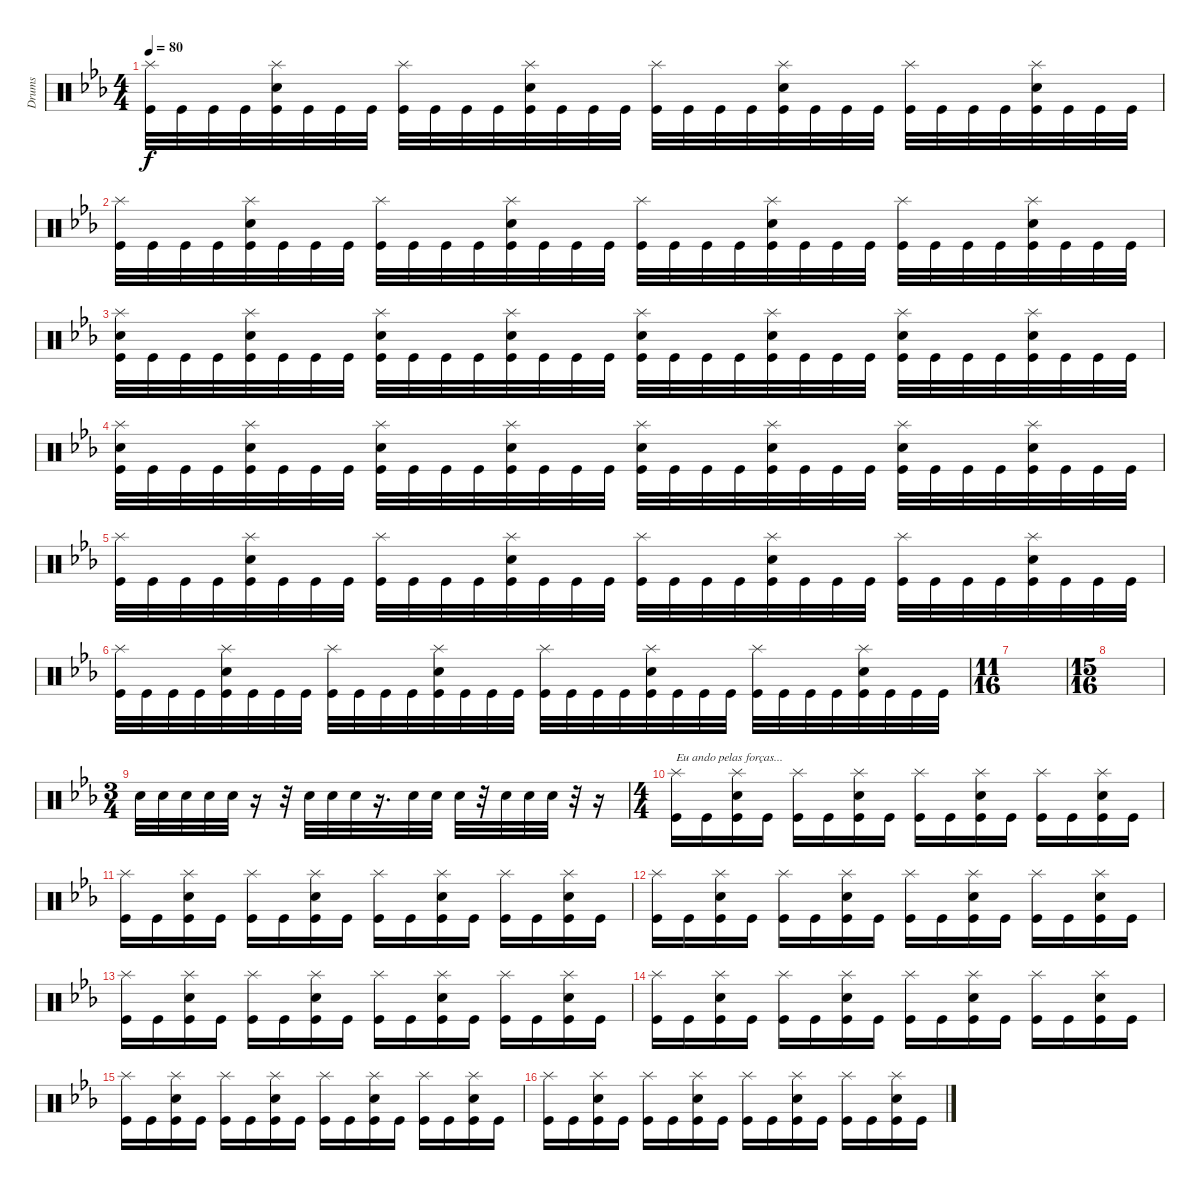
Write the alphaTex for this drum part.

\track ("Drums" "Drums") {instrument percussion}
\staff {score}
\articulation defaults
\ts (4 4)
\tempo 80
\clef neutral
\ks eb
("Splash (hit)" "Kick (hit)").32{dy f volume 13} "Kick (hit)".32 "Kick (hit)".32 "Kick (hit)".32 ("Splash (hit)" "Electric Snare (hit)" "Kick (hit)").32 "Kick (hit)".32 "Kick (hit)".32 "Kick (hit)".32 ("Splash (hit)" "Kick (hit)").32 "Kick (hit)".32 "Kick (hit)".32 "Kick (hit)".32 ("Splash (hit)" "Electric Snare (hit)" "Kick (hit)").32 "Kick (hit)".32 "Kick (hit)".32 "Kick (hit)".32 ("Splash (hit)" "Kick (hit)").32 "Kick (hit)".32 "Kick (hit)".32 "Kick (hit)".32 ("Splash (hit)" "Electric Snare (hit)" "Kick (hit)").32 "Kick (hit)".32 "Kick (hit)".32 "Kick (hit)".32 ("Splash (hit)" "Kick (hit)").32 "Kick (hit)".32 "Kick (hit)".32 "Kick (hit)".32 ("Splash (hit)" "Electric Snare (hit)" "Kick (hit)").32 "Kick (hit)".32 "Kick (hit)".32 "Kick (hit)".32 |
("Splash (hit)" "Kick (hit)").32 "Kick (hit)".32 "Kick (hit)".32 "Kick (hit)".32 ("Splash (hit)" "Electric Snare (hit)" "Kick (hit)").32 "Kick (hit)".32 "Kick (hit)".32 "Kick (hit)".32 ("Splash (hit)" "Kick (hit)").32 "Kick (hit)".32 "Kick (hit)".32 "Kick (hit)".32 ("Splash (hit)" "Electric Snare (hit)" "Kick (hit)").32 "Kick (hit)".32 "Kick (hit)".32 "Kick (hit)".32 ("Splash (hit)" "Kick (hit)").32 "Kick (hit)".32 "Kick (hit)".32 "Kick (hit)".32 ("Splash (hit)" "Electric Snare (hit)" "Kick (hit)").32 "Kick (hit)".32 "Kick (hit)".32 "Kick (hit)".32 ("Splash (hit)" "Kick (hit)").32 "Kick (hit)".32 "Kick (hit)".32 "Kick (hit)".32 ("Splash (hit)" "Electric Snare (hit)" "Kick (hit)").32 "Kick (hit)".32 "Kick (hit)".32 "Kick (hit)".32 |
("Splash (hit)" "Electric Snare (hit)" "Kick (hit)").32 "Kick (hit)".32 "Kick (hit)".32 "Kick (hit)".32 ("Splash (hit)" "Electric Snare (hit)" "Kick (hit)").32 "Kick (hit)".32 "Kick (hit)".32 "Kick (hit)".32 ("Splash (hit)" "Electric Snare (hit)" "Kick (hit)").32 "Kick (hit)".32 "Kick (hit)".32 "Kick (hit)".32 ("Splash (hit)" "Electric Snare (hit)" "Kick (hit)").32 "Kick (hit)".32 "Kick (hit)".32 "Kick (hit)".32 ("Splash (hit)" "Electric Snare (hit)" "Kick (hit)").32 "Kick (hit)".32 "Kick (hit)".32 "Kick (hit)".32 ("Splash (hit)" "Electric Snare (hit)" "Kick (hit)").32 "Kick (hit)".32 "Kick (hit)".32 "Kick (hit)".32 ("Splash (hit)" "Electric Snare (hit)" "Kick (hit)").32 "Kick (hit)".32 "Kick (hit)".32 "Kick (hit)".32 ("Splash (hit)" "Electric Snare (hit)" "Kick (hit)").32 "Kick (hit)".32 "Kick (hit)".32 "Kick (hit)".32 |
("Splash (hit)" "Electric Snare (hit)" "Kick (hit)").32 "Kick (hit)".32 "Kick (hit)".32 "Kick (hit)".32 ("Splash (hit)" "Electric Snare (hit)" "Kick (hit)").32 "Kick (hit)".32 "Kick (hit)".32 "Kick (hit)".32 ("Splash (hit)" "Electric Snare (hit)" "Kick (hit)").32 "Kick (hit)".32 "Kick (hit)".32 "Kick (hit)".32 ("Splash (hit)" "Electric Snare (hit)" "Kick (hit)").32 "Kick (hit)".32 "Kick (hit)".32 "Kick (hit)".32 ("Splash (hit)" "Electric Snare (hit)" "Kick (hit)").32 "Kick (hit)".32 "Kick (hit)".32 "Kick (hit)".32 ("Splash (hit)" "Electric Snare (hit)" "Kick (hit)").32 "Kick (hit)".32 "Kick (hit)".32 "Kick (hit)".32 ("Splash (hit)" "Electric Snare (hit)" "Kick (hit)").32 "Kick (hit)".32 "Kick (hit)".32 "Kick (hit)".32 ("Splash (hit)" "Electric Snare (hit)" "Kick (hit)").32 "Kick (hit)".32 "Kick (hit)".32 "Kick (hit)".32 |
("Splash (hit)" "Kick (hit)").32 "Kick (hit)".32 "Kick (hit)".32 "Kick (hit)".32 ("Splash (hit)" "Electric Snare (hit)" "Kick (hit)").32 "Kick (hit)".32 "Kick (hit)".32 "Kick (hit)".32 ("Splash (hit)" "Kick (hit)").32 "Kick (hit)".32 "Kick (hit)".32 "Kick (hit)".32 ("Splash (hit)" "Electric Snare (hit)" "Kick (hit)").32 "Kick (hit)".32 "Kick (hit)".32 "Kick (hit)".32 ("Splash (hit)" "Kick (hit)").32 "Kick (hit)".32 "Kick (hit)".32 "Kick (hit)".32 ("Splash (hit)" "Electric Snare (hit)" "Kick (hit)").32 "Kick (hit)".32 "Kick (hit)".32 "Kick (hit)".32 ("Splash (hit)" "Kick (hit)").32 "Kick (hit)".32 "Kick (hit)".32 "Kick (hit)".32 ("Splash (hit)" "Electric Snare (hit)" "Kick (hit)").32 "Kick (hit)".32 "Kick (hit)".32 "Kick (hit)".32 |
("Splash (hit)" "Kick (hit)").32 "Kick (hit)".32 "Kick (hit)".32 "Kick (hit)".32 ("Splash (hit)" "Electric Snare (hit)" "Kick (hit)").32 "Kick (hit)".32 "Kick (hit)".32 "Kick (hit)".32 ("Splash (hit)" "Kick (hit)").32 "Kick (hit)".32 "Kick (hit)".32 "Kick (hit)".32 ("Splash (hit)" "Electric Snare (hit)" "Kick (hit)").32 "Kick (hit)".32 "Kick (hit)".32 "Kick (hit)".32 ("Splash (hit)" "Kick (hit)").32 "Kick (hit)".32 "Kick (hit)".32 "Kick (hit)".32 ("Splash (hit)" "Electric Snare (hit)" "Kick (hit)").32 "Kick (hit)".32 "Kick (hit)".32 "Kick (hit)".32 ("Splash (hit)" "Kick (hit)").32 "Kick (hit)".32 "Kick (hit)".32 "Kick (hit)".32 ("Splash (hit)" "Electric Snare (hit)" "Kick (hit)").32 "Kick (hit)".32 "Kick (hit)".32 "Kick (hit)".32 |
\ts (11 16)
|
\ts (15 16)
|
\ts (3 4)
"Electric Snare (hit)".32 "Electric Snare (hit)".32 "Electric Snare (hit)".32 "Electric Snare (hit)".32 "Electric Snare (hit)".32 r.16 r.32 "Electric Snare (hit)".32 "Electric Snare (hit)".32 "Electric Snare (hit)".32 r.16{d} "Electric Snare (hit)".32 "Electric Snare (hit)".32 "Electric Snare (hit)".32 r.32 "Electric Snare (hit)".32 "Electric Snare (hit)".32 "Electric Snare (hit)".32 r.32 r.16 |
\ts (4 4)
("Splash (hit)" "Kick (hit)").16{txt "Eu ando pelas forças..."} "Kick (hit)".16 ("Splash (hit)" "Electric Snare (hit)" "Kick (hit)").16 "Kick (hit)".16 ("Splash (hit)" "Kick (hit)").16 "Kick (hit)".16 ("Splash (hit)" "Electric Snare (hit)" "Kick (hit)").16 "Kick (hit)".16 ("Splash (hit)" "Kick (hit)").16 "Kick (hit)".16 ("Splash (hit)" "Electric Snare (hit)" "Kick (hit)").16 "Kick (hit)".16 ("Splash (hit)" "Kick (hit)").16 "Kick (hit)".16 ("Splash (hit)" "Electric Snare (hit)" "Kick (hit)").16 "Kick (hit)".16 |
("Splash (hit)" "Kick (hit)").16 "Kick (hit)".16 ("Splash (hit)" "Electric Snare (hit)" "Kick (hit)").16 "Kick (hit)".16 ("Splash (hit)" "Kick (hit)").16 "Kick (hit)".16 ("Splash (hit)" "Electric Snare (hit)" "Kick (hit)").16 "Kick (hit)".16 ("Splash (hit)" "Kick (hit)").16 "Kick (hit)".16 ("Splash (hit)" "Electric Snare (hit)" "Kick (hit)").16 "Kick (hit)".16 ("Splash (hit)" "Kick (hit)").16 "Kick (hit)".16 ("Splash (hit)" "Electric Snare (hit)" "Kick (hit)").16 "Kick (hit)".16 |
("Splash (hit)" "Kick (hit)").16 "Kick (hit)".16 ("Splash (hit)" "Electric Snare (hit)" "Kick (hit)").16 "Kick (hit)".16 ("Splash (hit)" "Kick (hit)").16 "Kick (hit)".16 ("Splash (hit)" "Electric Snare (hit)" "Kick (hit)").16 "Kick (hit)".16 ("Splash (hit)" "Kick (hit)").16 "Kick (hit)".16 ("Splash (hit)" "Electric Snare (hit)" "Kick (hit)").16 "Kick (hit)".16 ("Splash (hit)" "Kick (hit)").16 "Kick (hit)".16 ("Splash (hit)" "Electric Snare (hit)" "Kick (hit)").16 "Kick (hit)".16 |
("Splash (hit)" "Kick (hit)").16 "Kick (hit)".16 ("Splash (hit)" "Electric Snare (hit)" "Kick (hit)").16 "Kick (hit)".16 ("Splash (hit)" "Kick (hit)").16 "Kick (hit)".16 ("Splash (hit)" "Electric Snare (hit)" "Kick (hit)").16 "Kick (hit)".16 ("Splash (hit)" "Kick (hit)").16 "Kick (hit)".16 ("Splash (hit)" "Electric Snare (hit)" "Kick (hit)").16 "Kick (hit)".16 ("Splash (hit)" "Kick (hit)").16 "Kick (hit)".16 ("Splash (hit)" "Electric Snare (hit)" "Kick (hit)").16 "Kick (hit)".16 |
("Splash (hit)" "Kick (hit)").16 "Kick (hit)".16 ("Splash (hit)" "Electric Snare (hit)" "Kick (hit)").16 "Kick (hit)".16 ("Splash (hit)" "Kick (hit)").16 "Kick (hit)".16 ("Splash (hit)" "Electric Snare (hit)" "Kick (hit)").16 "Kick (hit)".16 ("Splash (hit)" "Kick (hit)").16 "Kick (hit)".16 ("Splash (hit)" "Electric Snare (hit)" "Kick (hit)").16 "Kick (hit)".16 ("Splash (hit)" "Kick (hit)").16 "Kick (hit)".16 ("Splash (hit)" "Electric Snare (hit)" "Kick (hit)").16 "Kick (hit)".16 |
("Splash (hit)" "Kick (hit)").16 "Kick (hit)".16 ("Splash (hit)" "Electric Snare (hit)" "Kick (hit)").16 "Kick (hit)".16 ("Splash (hit)" "Kick (hit)").16 "Kick (hit)".16 ("Splash (hit)" "Electric Snare (hit)" "Kick (hit)").16 "Kick (hit)".16 ("Splash (hit)" "Kick (hit)").16 "Kick (hit)".16 ("Splash (hit)" "Electric Snare (hit)" "Kick (hit)").16 "Kick (hit)".16 ("Splash (hit)" "Kick (hit)").16 "Kick (hit)".16 ("Splash (hit)" "Electric Snare (hit)" "Kick (hit)").16 "Kick (hit)".16 |
("Splash (hit)" "Kick (hit)").16 "Kick (hit)".16 ("Splash (hit)" "Electric Snare (hit)" "Kick (hit)").16 "Kick (hit)".16 ("Splash (hit)" "Kick (hit)").16 "Kick (hit)".16 ("Splash (hit)" "Electric Snare (hit)" "Kick (hit)").16 "Kick (hit)".16 ("Splash (hit)" "Kick (hit)").16 "Kick (hit)".16 ("Splash (hit)" "Electric Snare (hit)" "Kick (hit)").16 "Kick (hit)".16 ("Splash (hit)" "Kick (hit)").16 "Kick (hit)".16 ("Splash (hit)" "Electric Snare (hit)" "Kick (hit)").16 "Kick (hit)".16
